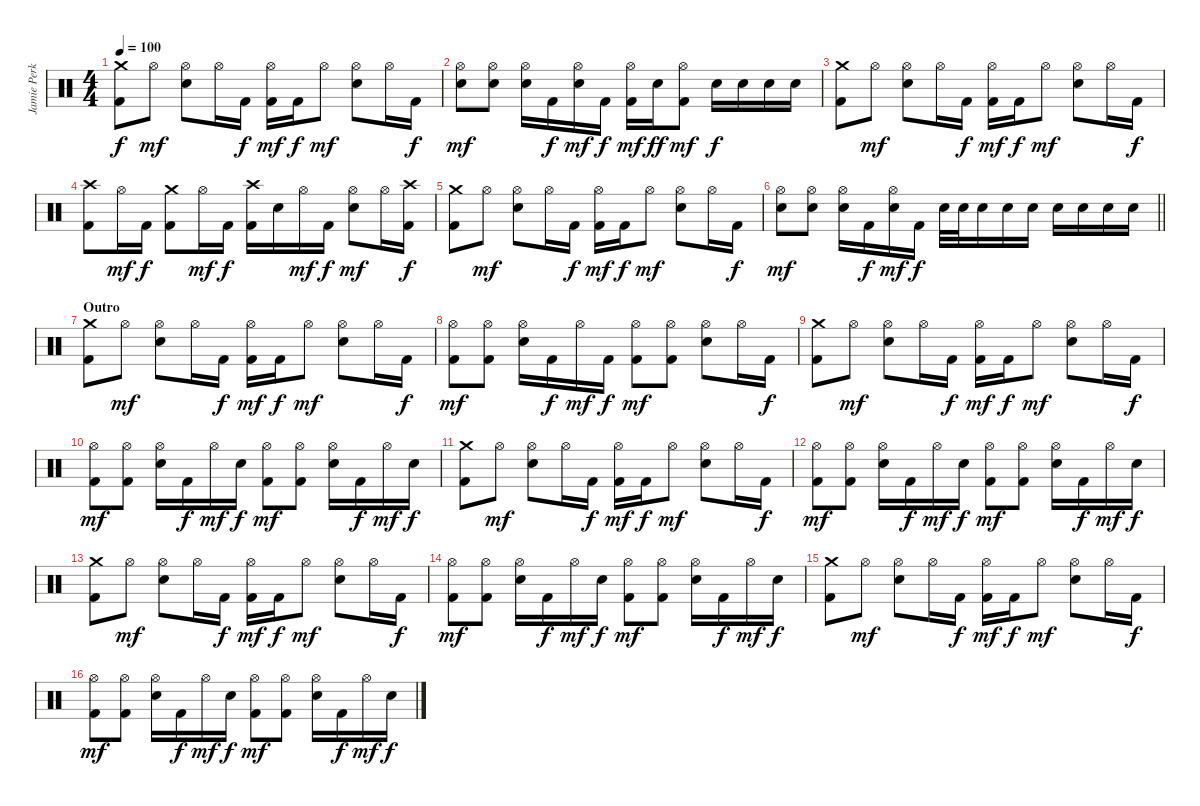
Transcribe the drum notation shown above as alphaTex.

\track ("Jamie Perkins" "Jamie Perk") {instrument percussion}
\staff {score}
\articulation defaults
\ts (4 4)
\tempo 100
\clef neutral
\ks c
("Crash medium (hit)" "Kick (hit) 2").8{dy f} "Hi-Hat (open)".8{dy mf} ("Hi-Hat (open)" "Snare (hit) 2").8 "Hi-Hat (open)".16 "Kick (hit) 2".16{dy f} ("Hi-Hat (open)" "Kick (hit) 2").16{dy mf} "Kick (hit) 2".16{dy f} "Hi-Hat (open)".8{dy mf} ("Hi-Hat (open)" "Snare (hit) 2").8 "Hi-Hat (open)".16 "Kick (hit) 2".16{dy f} |
("Hi-Hat (open)" "Snare (hit) 2").8{dy mf} ("Hi-Hat (open)" "Snare (hit) 2").8 ("Hi-Hat (open)" "Snare (hit) 2").16 "Kick (hit) 2".16{dy f} ("Hi-Hat (open)" "Snare (hit) 2").16{dy mf} "Kick (hit) 2".16{dy f} ("Hi-Hat (open)" "Kick (hit) 2").16{dy mf} "Snare (hit) 2".16{dy ff} ("Hi-Hat (open)" "Kick (hit) 2").8{dy mf} "Snare (hit) 2".16{dy f} "Snare (hit) 2".16 "Snare (hit) 2".16 "Snare (hit) 2".16 |
("Crash medium (hit)" "Kick (hit) 2").8 "Hi-Hat (open)".8{dy mf} ("Hi-Hat (open)" "Snare (hit) 2").8 "Hi-Hat (open)".16 "Kick (hit) 2".16{dy f} ("Hi-Hat (open)" "Kick (hit) 2").16{dy mf} "Kick (hit) 2".16{dy f} "Hi-Hat (open)".8{dy mf} ("Hi-Hat (open)" "Snare (hit) 2").8 "Hi-Hat (open)".16 "Kick (hit) 2".16{dy f} |
("Crash high (hit)" "Kick (hit) 2").8 "Hi-Hat (open)".16{dy mf} "Kick (hit) 2".16{dy f} ("Crash medium (hit)" "Kick (hit) 2").8 "Hi-Hat (open)".16{dy mf} "Kick (hit) 2".16{dy f} ("Crash high (hit)" "Kick (hit) 2").16 "Snare (hit) 2".16 "Hi-Hat (open)".16{dy mf} "Kick (hit) 2".16{dy f} ("Hi-Hat (open)" "Snare (hit) 2").8{dy mf} "Hi-Hat (open)".16 ("Crash high (hit)" "Kick (hit) 2").16{dy f} |
("Crash medium (hit)" "Kick (hit) 2").8 "Hi-Hat (open)".8{dy mf} ("Hi-Hat (open)" "Snare (hit) 2").8 "Hi-Hat (open)".16 "Kick (hit) 2".16{dy f} ("Hi-Hat (open)" "Kick (hit) 2").16{dy mf} "Kick (hit) 2".16{dy f} "Hi-Hat (open)".8{dy mf} ("Hi-Hat (open)" "Snare (hit) 2").8 "Hi-Hat (open)".16 "Kick (hit) 2".16{dy f} |
\barLineRight lightlight
("Hi-Hat (open)" "Snare (hit) 2").8{dy mf} ("Hi-Hat (open)" "Snare (hit) 2").8 ("Hi-Hat (open)" "Snare (hit) 2").16 "Kick (hit) 2".16{dy f} ("Hi-Hat (open)" "Snare (hit) 2").16{dy mf} "Kick (hit) 2".16{dy f} "Snare (hit) 2".32 "Snare (hit) 2".32 "Snare (hit) 2".16 "Snare (hit) 2".16 "Snare (hit) 2".16 "Snare (hit) 2".16 "Snare (hit) 2".16 "Snare (hit) 2".16 "Snare (hit) 2".16 |
\section ("" "Outro")
("Crash medium (hit)" "Kick (hit) 2").8 "Hi-Hat (open)".8{dy mf} ("Hi-Hat (open)" "Snare (hit) 2").8 "Hi-Hat (open)".16 "Kick (hit) 2".16{dy f} ("Hi-Hat (open)" "Kick (hit) 2").16{dy mf} "Kick (hit) 2".16{dy f} "Hi-Hat (open)".8{dy mf} ("Hi-Hat (open)" "Snare (hit) 2").8 "Hi-Hat (open)".16 "Kick (hit) 2".16{dy f} |
("Hi-Hat (open)" "Kick (hit) 2").8{dy mf} ("Hi-Hat (open)" "Kick (hit) 2").8 ("Hi-Hat (open)" "Snare (hit) 2").16 "Kick (hit) 2".16{dy f} "Hi-Hat (open)".16{dy mf} "Kick (hit) 2".16{dy f} ("Hi-Hat (open)" "Kick (hit) 2").8{dy mf} ("Hi-Hat (open)" "Kick (hit) 2").8 ("Hi-Hat (open)" "Snare (hit) 2").8 "Hi-Hat (open)".16 "Kick (hit) 2".16{dy f} |
("Crash medium (hit)" "Kick (hit) 2").8 "Hi-Hat (open)".8{dy mf} ("Hi-Hat (open)" "Snare (hit) 2").8 "Hi-Hat (open)".16 "Kick (hit) 2".16{dy f} ("Hi-Hat (open)" "Kick (hit) 2").16{dy mf} "Kick (hit) 2".16{dy f} "Hi-Hat (open)".8{dy mf} ("Hi-Hat (open)" "Snare (hit) 2").8 "Hi-Hat (open)".16 "Kick (hit) 2".16{dy f} |
("Hi-Hat (open)" "Kick (hit) 2").8{dy mf} ("Hi-Hat (open)" "Kick (hit) 2").8 ("Hi-Hat (open)" "Snare (hit) 2").16 "Kick (hit) 2".16{dy f} "Hi-Hat (open)".16{dy mf} "Snare (hit) 2".16{dy f} ("Hi-Hat (open)" "Kick (hit) 2").8{dy mf} ("Hi-Hat (open)" "Kick (hit) 2").8 ("Hi-Hat (open)" "Snare (hit) 2").16 "Kick (hit) 2".16{dy f} "Hi-Hat (open)".16{dy mf} "Snare (hit) 2".16{dy f} |
("Crash medium (hit)" "Kick (hit) 2").8 "Hi-Hat (open)".8{dy mf} ("Hi-Hat (open)" "Snare (hit) 2").8 "Hi-Hat (open)".16 "Kick (hit) 2".16{dy f} ("Hi-Hat (open)" "Kick (hit) 2").16{dy mf} "Kick (hit) 2".16{dy f} "Hi-Hat (open)".8{dy mf} ("Hi-Hat (open)" "Snare (hit) 2").8 "Hi-Hat (open)".16 "Kick (hit) 2".16{dy f} |
("Hi-Hat (open)" "Kick (hit) 2").8{dy mf} ("Hi-Hat (open)" "Kick (hit) 2").8 ("Hi-Hat (open)" "Snare (hit) 2").16 "Kick (hit) 2".16{dy f} "Hi-Hat (open)".16{dy mf} "Snare (hit) 2".16{dy f} ("Hi-Hat (open)" "Kick (hit) 2").8{dy mf} ("Hi-Hat (open)" "Kick (hit) 2").8 ("Hi-Hat (open)" "Snare (hit) 2").16 "Kick (hit) 2".16{dy f} "Hi-Hat (open)".16{dy mf} "Snare (hit) 2".16{dy f} |
("Crash medium (hit)" "Kick (hit) 2").8 "Hi-Hat (open)".8{dy mf} ("Hi-Hat (open)" "Snare (hit) 2").8 "Hi-Hat (open)".16 "Kick (hit) 2".16{dy f} ("Hi-Hat (open)" "Kick (hit) 2").16{dy mf} "Kick (hit) 2".16{dy f} "Hi-Hat (open)".8{dy mf} ("Hi-Hat (open)" "Snare (hit) 2").8 "Hi-Hat (open)".16 "Kick (hit) 2".16{dy f} |
("Hi-Hat (open)" "Kick (hit) 2").8{dy mf} ("Hi-Hat (open)" "Kick (hit) 2").8 ("Hi-Hat (open)" "Snare (hit) 2").16 "Kick (hit) 2".16{dy f} "Hi-Hat (open)".16{dy mf} "Snare (hit) 2".16{dy f} ("Hi-Hat (open)" "Kick (hit) 2").8{dy mf} ("Hi-Hat (open)" "Kick (hit) 2").8 ("Hi-Hat (open)" "Snare (hit) 2").16 "Kick (hit) 2".16{dy f} "Hi-Hat (open)".16{dy mf} "Snare (hit) 2".16{dy f} |
("Crash medium (hit)" "Kick (hit) 2").8 "Hi-Hat (open)".8{dy mf} ("Hi-Hat (open)" "Snare (hit) 2").8 "Hi-Hat (open)".16 "Kick (hit) 2".16{dy f} ("Hi-Hat (open)" "Kick (hit) 2").16{dy mf} "Kick (hit) 2".16{dy f} "Hi-Hat (open)".8{dy mf} ("Hi-Hat (open)" "Snare (hit) 2").8 "Hi-Hat (open)".16 "Kick (hit) 2".16{dy f} |
("Hi-Hat (open)" "Kick (hit) 2").8{dy mf} ("Hi-Hat (open)" "Kick (hit) 2").8 ("Hi-Hat (open)" "Snare (hit) 2").16 "Kick (hit) 2".16{dy f} "Hi-Hat (open)".16{dy mf} "Snare (hit) 2".16{dy f} ("Hi-Hat (open)" "Kick (hit) 2").8{dy mf} ("Hi-Hat (open)" "Kick (hit) 2").8 ("Hi-Hat (open)" "Snare (hit) 2").16 "Kick (hit) 2".16{dy f} "Hi-Hat (open)".16{dy mf} "Snare (hit) 2".16{dy f}
